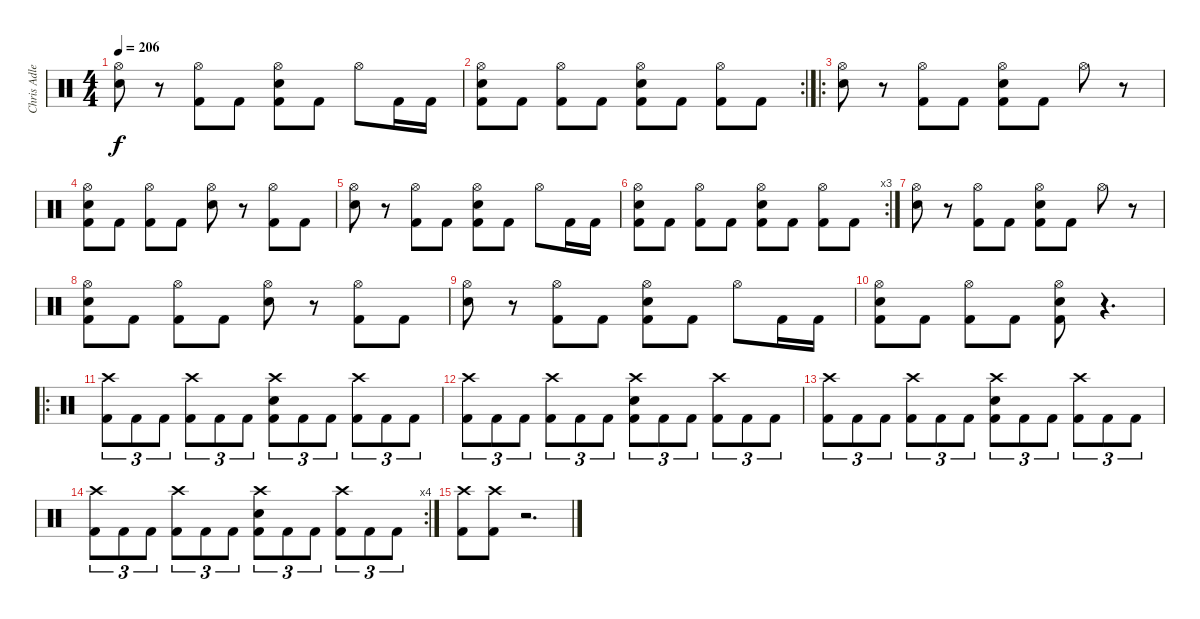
\track ("Chris Adler" "Chris Adle") {instrument percussion}
\staff {score}
\articulation defaults
\ts (4 4)
\tempo 206
\clef neutral
\ks c
("Hi-Hat (open)" "Snare (hit) 2").8{dy f} r.8 ("Hi-Hat (open)" "Kick (hit) 2").8 "Kick (hit) 2".8 ("Hi-Hat (open)" "Snare (hit) 2" "Kick (hit) 2").8 "Kick (hit) 2".8 "Hi-Hat (open)".8 "Kick (hit) 2".16 "Kick (hit) 2".16 |
\rc 2
("Hi-Hat (open)" "Snare (hit) 2" "Kick (hit) 2").8 "Kick (hit) 2".8 ("Hi-Hat (open)" "Kick (hit) 2").8 "Kick (hit) 2".8 ("Hi-Hat (open)" "Snare (hit) 2" "Kick (hit) 2").8 "Kick (hit) 2".8 ("Hi-Hat (open)" "Kick (hit) 2").8 "Kick (hit) 2".8 |
\ro
("Hi-Hat (open)" "Snare (hit) 2").8 r.8 ("Hi-Hat (open)" "Kick (hit) 2").8 "Kick (hit) 2".8 ("Hi-Hat (open)" "Snare (hit) 2" "Kick (hit) 2").8 "Kick (hit) 2".8 "Hi-Hat (open)".8 r.8 |
("Hi-Hat (open)" "Snare (hit) 2" "Kick (hit) 2").8 "Kick (hit) 2".8 ("Hi-Hat (open)" "Kick (hit) 2").8 "Kick (hit) 2".8 ("Hi-Hat (open)" "Snare (hit) 2").8 r.8 ("Hi-Hat (open)" "Kick (hit) 2").8 "Kick (hit) 2".8 |
("Hi-Hat (open)" "Snare (hit) 2").8 r.8 ("Hi-Hat (open)" "Kick (hit) 2").8 "Kick (hit) 2".8 ("Hi-Hat (open)" "Snare (hit) 2" "Kick (hit) 2").8 "Kick (hit) 2".8 "Hi-Hat (open)".8 "Kick (hit) 2".16 "Kick (hit) 2".16 |
\rc 3
("Hi-Hat (open)" "Snare (hit) 2" "Kick (hit) 2").8 "Kick (hit) 2".8 ("Hi-Hat (open)" "Kick (hit) 2").8 "Kick (hit) 2".8 ("Hi-Hat (open)" "Snare (hit) 2" "Kick (hit) 2").8 "Kick (hit) 2".8 ("Hi-Hat (open)" "Kick (hit) 2").8 "Kick (hit) 2".8 |
("Hi-Hat (open)" "Snare (hit) 2").8 r.8 ("Hi-Hat (open)" "Kick (hit) 2").8 "Kick (hit) 2".8 ("Hi-Hat (open)" "Snare (hit) 2" "Kick (hit) 2").8 "Kick (hit) 2".8 "Hi-Hat (open)".8 r.8 |
("Hi-Hat (open)" "Snare (hit) 2" "Kick (hit) 2").8 "Kick (hit) 2".8 ("Hi-Hat (open)" "Kick (hit) 2").8 "Kick (hit) 2".8 ("Hi-Hat (open)" "Snare (hit) 2").8 r.8 ("Hi-Hat (open)" "Kick (hit) 2").8 "Kick (hit) 2".8 |
("Hi-Hat (open)" "Snare (hit) 2").8 r.8 ("Hi-Hat (open)" "Kick (hit) 2").8 "Kick (hit) 2".8 ("Hi-Hat (open)" "Snare (hit) 2" "Kick (hit) 2").8 "Kick (hit) 2".8 "Hi-Hat (open)".8 "Kick (hit) 2".16 "Kick (hit) 2".16 |
("Hi-Hat (open)" "Snare (hit) 2" "Kick (hit) 2").8 "Kick (hit) 2".8 ("Hi-Hat (open)" "Kick (hit) 2").8 "Kick (hit) 2".8 ("Hi-Hat (open)" "Snare (hit) 2" "Kick (hit) 2").8 r.4{d} |
\ro
("Crash high (hit)" "Kick (hit) 2").8{tu (3 2)} "Kick (hit) 2".8{tu (3 2)} "Kick (hit) 2".8{tu (3 2)} ("Crash high (hit)" "Kick (hit) 2").8{tu (3 2)} "Kick (hit) 2".8{tu (3 2)} "Kick (hit) 2".8{tu (3 2)} ("Crash high (hit)" "Snare (hit) 2" "Kick (hit) 2").8{tu (3 2)} "Kick (hit) 2".8{tu (3 2)} "Kick (hit) 2".8{tu (3 2)} ("Crash high (hit)" "Kick (hit) 2").8{tu (3 2)} "Kick (hit) 2".8{tu (3 2)} "Kick (hit) 2".8{tu (3 2)} |
("Crash high (hit)" "Kick (hit) 2").8{tu (3 2)} "Kick (hit) 2".8{tu (3 2)} "Kick (hit) 2".8{tu (3 2)} ("Crash high (hit)" "Kick (hit) 2").8{tu (3 2)} "Kick (hit) 2".8{tu (3 2)} "Kick (hit) 2".8{tu (3 2)} ("Crash high (hit)" "Snare (hit) 2" "Kick (hit) 2").8{tu (3 2)} "Kick (hit) 2".8{tu (3 2)} "Kick (hit) 2".8{tu (3 2)} ("Crash high (hit)" "Kick (hit) 2").8{tu (3 2)} "Kick (hit) 2".8{tu (3 2)} "Kick (hit) 2".8{tu (3 2)} |
("Crash high (hit)" "Kick (hit) 2").8{tu (3 2)} "Kick (hit) 2".8{tu (3 2)} "Kick (hit) 2".8{tu (3 2)} ("Crash high (hit)" "Kick (hit) 2").8{tu (3 2)} "Kick (hit) 2".8{tu (3 2)} "Kick (hit) 2".8{tu (3 2)} ("Crash high (hit)" "Snare (hit) 2" "Kick (hit) 2").8{tu (3 2)} "Kick (hit) 2".8{tu (3 2)} "Kick (hit) 2".8{tu (3 2)} ("Crash high (hit)" "Kick (hit) 2").8{tu (3 2)} "Kick (hit) 2".8{tu (3 2)} "Kick (hit) 2".8{tu (3 2)} |
\rc 4
("Crash high (hit)" "Kick (hit) 2").8{tu (3 2)} "Kick (hit) 2".8{tu (3 2)} "Kick (hit) 2".8{tu (3 2)} ("Crash high (hit)" "Kick (hit) 2").8{tu (3 2)} "Kick (hit) 2".8{tu (3 2)} "Kick (hit) 2".8{tu (3 2)} ("Crash high (hit)" "Snare (hit) 2" "Kick (hit) 2").8{tu (3 2)} "Kick (hit) 2".8{tu (3 2)} "Kick (hit) 2".8{tu (3 2)} ("Crash high (hit)" "Kick (hit) 2").8{tu (3 2)} "Kick (hit) 2".8{tu (3 2)} "Kick (hit) 2".8{tu (3 2)} |
("Crash high (hit)" "Kick (hit) 2").8 ("Crash high (hit)" "Kick (hit) 2").8 r.2{d}
